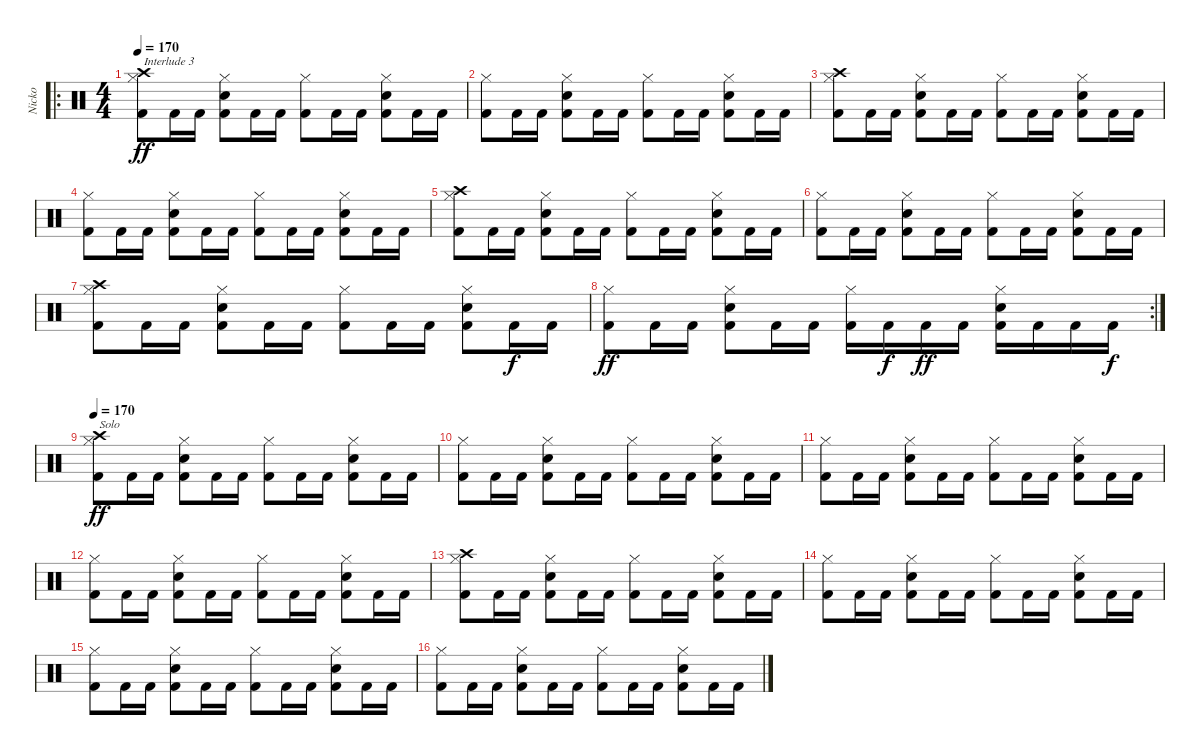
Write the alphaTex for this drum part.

\track ("Nicko" "Nicko") {instrument percussion}
\staff {score}
\articulation defaults
\ro
\ts (4 4)
\tempo 170
\clef neutral
\ks c
("Crash high (hit)" "Hi-Hat (closed)" "Kick (hit) 2").8{txt "Interlude 3" dy ff} "Kick (hit) 2".16 "Kick (hit) 2".16 ("Hi-Hat (closed)" "Snare (hit) 2" "Kick (hit) 2").8 "Kick (hit) 2".16 "Kick (hit) 2".16 ("Hi-Hat (closed)" "Kick (hit) 2").8 "Kick (hit) 2".16 "Kick (hit) 2".16 ("Hi-Hat (closed)" "Snare (hit) 2" "Kick (hit) 2").8 "Kick (hit) 2".16 "Kick (hit) 2".16 |
("Hi-Hat (closed)" "Kick (hit) 2").8 "Kick (hit) 2".16 "Kick (hit) 2".16 ("Hi-Hat (closed)" "Snare (hit) 2" "Kick (hit) 2").8 "Kick (hit) 2".16 "Kick (hit) 2".16 ("Hi-Hat (closed)" "Kick (hit) 2").8 "Kick (hit) 2".16 "Kick (hit) 2".16 ("Hi-Hat (closed)" "Snare (hit) 2" "Kick (hit) 2").8 "Kick (hit) 2".16 "Kick (hit) 2".16 |
("Crash high (hit)" "Hi-Hat (closed)" "Kick (hit) 2").8 "Kick (hit) 2".16 "Kick (hit) 2".16 ("Hi-Hat (closed)" "Snare (hit) 2" "Kick (hit) 2").8 "Kick (hit) 2".16 "Kick (hit) 2".16 ("Hi-Hat (closed)" "Kick (hit) 2").8 "Kick (hit) 2".16 "Kick (hit) 2".16 ("Hi-Hat (closed)" "Snare (hit) 2" "Kick (hit) 2").8 "Kick (hit) 2".16 "Kick (hit) 2".16 |
("Hi-Hat (closed)" "Kick (hit) 2").8 "Kick (hit) 2".16 "Kick (hit) 2".16 ("Hi-Hat (closed)" "Snare (hit) 2" "Kick (hit) 2").8 "Kick (hit) 2".16 "Kick (hit) 2".16 ("Hi-Hat (closed)" "Kick (hit) 2").8 "Kick (hit) 2".16 "Kick (hit) 2".16 ("Hi-Hat (closed)" "Snare (hit) 2" "Kick (hit) 2").8 "Kick (hit) 2".16 "Kick (hit) 2".16 |
("Crash high (hit)" "Hi-Hat (closed)" "Kick (hit) 2").8 "Kick (hit) 2".16 "Kick (hit) 2".16 ("Hi-Hat (closed)" "Snare (hit) 2" "Kick (hit) 2").8 "Kick (hit) 2".16 "Kick (hit) 2".16 ("Hi-Hat (closed)" "Kick (hit) 2").8 "Kick (hit) 2".16 "Kick (hit) 2".16 ("Hi-Hat (closed)" "Snare (hit) 2" "Kick (hit) 2").8 "Kick (hit) 2".16 "Kick (hit) 2".16 |
("Hi-Hat (closed)" "Kick (hit) 2").8 "Kick (hit) 2".16 "Kick (hit) 2".16 ("Hi-Hat (closed)" "Snare (hit) 2" "Kick (hit) 2").8 "Kick (hit) 2".16 "Kick (hit) 2".16 ("Hi-Hat (closed)" "Kick (hit) 2").8 "Kick (hit) 2".16 "Kick (hit) 2".16 ("Hi-Hat (closed)" "Snare (hit) 2" "Kick (hit) 2").8 "Kick (hit) 2".16 "Kick (hit) 2".16 |
("Crash high (hit)" "Hi-Hat (closed)" "Kick (hit) 2").8 "Kick (hit) 2".16 "Kick (hit) 2".16 ("Hi-Hat (closed)" "Snare (hit) 2" "Kick (hit) 2").8 "Kick (hit) 2".16 "Kick (hit) 2".16 ("Hi-Hat (closed)" "Kick (hit) 2").8 "Kick (hit) 2".16 "Kick (hit) 2".16 ("Hi-Hat (closed)" "Snare (hit) 2" "Kick (hit) 2").8 "Kick (hit) 2".16{dy f} "Kick (hit) 2".16 |
\rc 2
("Hi-Hat (closed)" "Kick (hit) 2").8{dy ff} "Kick (hit) 2".16 "Kick (hit) 2".16 ("Hi-Hat (closed)" "Snare (hit) 2" "Kick (hit) 2").8 "Kick (hit) 2".16 "Kick (hit) 2".16 ("Hi-Hat (closed)" "Kick (hit) 2").16 "Kick (hit) 2".16{dy f} "Kick (hit) 2".16{dy ff} "Kick (hit) 2".16 ("Hi-Hat (closed)" "Snare (hit) 2" "Kick (hit) 2").16 "Kick (hit) 2".16 "Kick (hit) 2".16 "Kick (hit) 2".16{dy f} |
\tempo 170
("Crash high (hit)" "Hi-Hat (closed)" "Kick (hit) 2").8{txt "Solo" dy ff} "Kick (hit) 2".16 "Kick (hit) 2".16 ("Hi-Hat (closed)" "Snare (hit) 2" "Kick (hit) 2").8 "Kick (hit) 2".16 "Kick (hit) 2".16 ("Hi-Hat (closed)" "Kick (hit) 2").8 "Kick (hit) 2".16 "Kick (hit) 2".16 ("Hi-Hat (closed)" "Snare (hit) 2" "Kick (hit) 2").8 "Kick (hit) 2".16 "Kick (hit) 2".16 |
("Hi-Hat (closed)" "Kick (hit) 2").8 "Kick (hit) 2".16 "Kick (hit) 2".16 ("Hi-Hat (closed)" "Snare (hit) 2" "Kick (hit) 2").8 "Kick (hit) 2".16 "Kick (hit) 2".16 ("Hi-Hat (closed)" "Kick (hit) 2").8 "Kick (hit) 2".16 "Kick (hit) 2".16 ("Hi-Hat (closed)" "Snare (hit) 2" "Kick (hit) 2").8 "Kick (hit) 2".16 "Kick (hit) 2".16 |
("Hi-Hat (closed)" "Kick (hit) 2").8 "Kick (hit) 2".16 "Kick (hit) 2".16 ("Hi-Hat (closed)" "Snare (hit) 2" "Kick (hit) 2").8 "Kick (hit) 2".16 "Kick (hit) 2".16 ("Hi-Hat (closed)" "Kick (hit) 2").8 "Kick (hit) 2".16 "Kick (hit) 2".16 ("Hi-Hat (closed)" "Snare (hit) 2" "Kick (hit) 2").8 "Kick (hit) 2".16 "Kick (hit) 2".16 |
("Hi-Hat (closed)" "Kick (hit) 2").8 "Kick (hit) 2".16 "Kick (hit) 2".16 ("Hi-Hat (closed)" "Snare (hit) 2" "Kick (hit) 2").8 "Kick (hit) 2".16 "Kick (hit) 2".16 ("Hi-Hat (closed)" "Kick (hit) 2").8 "Kick (hit) 2".16 "Kick (hit) 2".16 ("Hi-Hat (closed)" "Snare (hit) 2" "Kick (hit) 2").8 "Kick (hit) 2".16 "Kick (hit) 2".16 |
("Crash high (hit)" "Hi-Hat (closed)" "Kick (hit) 2").8 "Kick (hit) 2".16 "Kick (hit) 2".16 ("Hi-Hat (closed)" "Snare (hit) 2" "Kick (hit) 2").8 "Kick (hit) 2".16 "Kick (hit) 2".16 ("Hi-Hat (closed)" "Kick (hit) 2").8 "Kick (hit) 2".16 "Kick (hit) 2".16 ("Hi-Hat (closed)" "Snare (hit) 2" "Kick (hit) 2").8 "Kick (hit) 2".16 "Kick (hit) 2".16 |
("Hi-Hat (closed)" "Kick (hit) 2").8 "Kick (hit) 2".16 "Kick (hit) 2".16 ("Hi-Hat (closed)" "Snare (hit) 2" "Kick (hit) 2").8 "Kick (hit) 2".16 "Kick (hit) 2".16 ("Hi-Hat (closed)" "Kick (hit) 2").8 "Kick (hit) 2".16 "Kick (hit) 2".16 ("Hi-Hat (closed)" "Snare (hit) 2" "Kick (hit) 2").8 "Kick (hit) 2".16 "Kick (hit) 2".16 |
("Hi-Hat (closed)" "Kick (hit) 2").8 "Kick (hit) 2".16 "Kick (hit) 2".16 ("Hi-Hat (closed)" "Snare (hit) 2" "Kick (hit) 2").8 "Kick (hit) 2".16 "Kick (hit) 2".16 ("Hi-Hat (closed)" "Kick (hit) 2").8 "Kick (hit) 2".16 "Kick (hit) 2".16 ("Hi-Hat (closed)" "Snare (hit) 2" "Kick (hit) 2").8 "Kick (hit) 2".16 "Kick (hit) 2".16 |
("Hi-Hat (closed)" "Kick (hit) 2").8 "Kick (hit) 2".16 "Kick (hit) 2".16 ("Hi-Hat (closed)" "Snare (hit) 2" "Kick (hit) 2").8 "Kick (hit) 2".16 "Kick (hit) 2".16 ("Hi-Hat (closed)" "Kick (hit) 2").8 "Kick (hit) 2".16 "Kick (hit) 2".16 ("Hi-Hat (closed)" "Snare (hit) 2" "Kick (hit) 2").8 "Kick (hit) 2".16 "Kick (hit) 2".16
